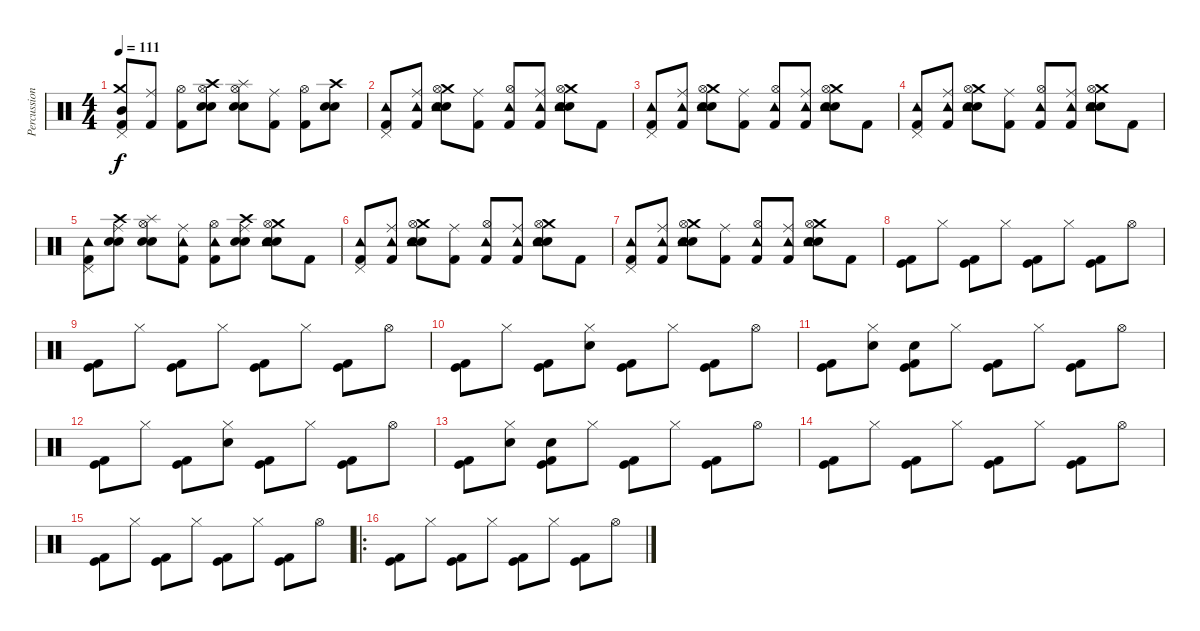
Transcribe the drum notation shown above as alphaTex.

\track ("Percussion" "Percussion") {instrument percussion}
\staff {score}
\articulation defaults
\ts (4 4)
\tempo 111
\clef neutral
\ks c
("Kick (hit) 2" "Mid Tom (hit)" "Crash medium (hit)" "Pedal Hi-Hat (hit)").8{dy f} ("Kick (hit) 2" "Ride (middle)").8 ("Kick (hit) 2" "Hi-Hat (open)").8 ("Snare (hit) 2" "Electric Snare (hit)" "Crash high (hit)" "Hi-Hat (open)").8 ("Snare (hit) 2" "Electric Snare (hit)" "Splash (hit)" "Hi-Hat (open)").8 ("Kick (hit) 2" "Ride (middle)").8 ("Kick (hit) 2" "Hi-Hat (open)").8 ("Snare (hit) 2" "Electric Snare (hit)" "Crash high (hit)").8 |
("Kick (hit) 2" "Pedal Hi-Hat (hit)" "Tambourine (hit)").8 ("Kick (hit) 2" "Ride (middle)" "Tambourine (hit)").8 ("Snare (hit) 2" "Electric Snare (hit)" "Crash medium (hit)" "Hi-Hat (open)" "Tambourine (hit)").8 ("Kick (hit) 2" "Ride (middle)").8 ("Kick (hit) 2" "Hi-Hat (open)" "Tambourine (hit)").8 ("Kick (hit) 2" "Ride (middle)" "Tambourine (hit)").8 ("Snare (hit) 2" "Electric Snare (hit)" "Crash medium (hit)" "Hi-Hat (open)" "Tambourine (hit)").8 "Kick (hit) 2".8 |
("Kick (hit) 2" "Pedal Hi-Hat (hit)" "Tambourine (hit)").8 ("Kick (hit) 2" "Ride (middle)" "Tambourine (hit)").8 ("Snare (hit) 2" "Electric Snare (hit)" "Crash medium (hit)" "Hi-Hat (open)" "Tambourine (hit)").8 ("Kick (hit) 2" "Ride (middle)").8 ("Kick (hit) 2" "Hi-Hat (open)" "Tambourine (hit)").8 ("Kick (hit) 2" "Ride (middle)" "Tambourine (hit)").8 ("Snare (hit) 2" "Electric Snare (hit)" "Crash medium (hit)" "Hi-Hat (open)" "Tambourine (hit)").8 "Kick (hit) 2".8 |
("Kick (hit) 2" "Pedal Hi-Hat (hit)" "Tambourine (hit)").8 ("Kick (hit) 2" "Ride (middle)" "Tambourine (hit)").8 ("Snare (hit) 2" "Electric Snare (hit)" "Crash medium (hit)" "Hi-Hat (open)" "Tambourine (hit)").8 ("Kick (hit) 2" "Ride (middle)").8 ("Kick (hit) 2" "Hi-Hat (open)" "Tambourine (hit)").8 ("Kick (hit) 2" "Ride (middle)" "Tambourine (hit)").8 ("Snare (hit) 2" "Electric Snare (hit)" "Crash medium (hit)" "Hi-Hat (open)" "Tambourine (hit)").8 "Kick (hit) 2".8 |
("Kick (hit) 2" "Pedal Hi-Hat (hit)" "Tambourine (hit)").8 ("Snare (hit) 2" "Electric Snare (hit)" "Crash high (hit)" "Ride (middle)").8 ("Snare (hit) 2" "Electric Snare (hit)" "Splash (hit)" "Hi-Hat (open)").8 ("Kick (hit) 2" "Ride (middle)" "Tambourine (hit)").8 ("Kick (hit) 2" "Hi-Hat (open)" "Tambourine (hit)").8 ("Snare (hit) 2" "Electric Snare (hit)" "Crash high (hit)" "Ride (middle)").8 ("Snare (hit) 2" "Electric Snare (hit)" "Crash medium (hit)" "Hi-Hat (open)" "Tambourine (hit)").8 "Kick (hit) 2".8 |
("Kick (hit) 2" "Pedal Hi-Hat (hit)" "Tambourine (hit)").8 ("Kick (hit) 2" "Ride (middle)" "Tambourine (hit)").8 ("Snare (hit) 2" "Electric Snare (hit)" "Crash medium (hit)" "Hi-Hat (open)" "Tambourine (hit)").8 ("Kick (hit) 2" "Ride (middle)").8 ("Kick (hit) 2" "Hi-Hat (open)" "Tambourine (hit)").8 ("Kick (hit) 2" "Ride (middle)" "Tambourine (hit)").8 ("Snare (hit) 2" "Electric Snare (hit)" "Crash medium (hit)" "Hi-Hat (open)" "Tambourine (hit)").8 "Kick (hit) 2".8 |
("Kick (hit) 2" "Pedal Hi-Hat (hit)" "Tambourine (hit)").8 ("Kick (hit) 2" "Ride (middle)" "Tambourine (hit)").8 ("Snare (hit) 2" "Electric Snare (hit)" "Crash medium (hit)" "Hi-Hat (open)" "Tambourine (hit)").8 ("Kick (hit) 2" "Ride (middle)").8 ("Kick (hit) 2" "Hi-Hat (open)" "Tambourine (hit)").8 ("Kick (hit) 2" "Ride (middle)" "Tambourine (hit)").8 ("Snare (hit) 2" "Electric Snare (hit)" "Crash medium (hit)" "Hi-Hat (open)" "Tambourine (hit)").8 "Kick (hit) 2".8 |
("Kick (hit)" "Kick (hit) 2").8 "Hi-Hat (closed)".8 ("Kick (hit)" "Kick (hit) 2").8 "Hi-Hat (closed)".8 ("Kick (hit)" "Kick (hit) 2").8 "Hi-Hat (closed)".8 ("Kick (hit)" "Kick (hit) 2").8 "Hi-Hat (open)".8 |
("Kick (hit)" "Kick (hit) 2").8 "Hi-Hat (closed)".8 ("Kick (hit)" "Kick (hit) 2").8 "Hi-Hat (closed)".8 ("Kick (hit)" "Kick (hit) 2").8 "Hi-Hat (closed)".8 ("Kick (hit)" "Kick (hit) 2").8 "Hi-Hat (open)".8 |
("Kick (hit)" "Kick (hit) 2").8 "Hi-Hat (closed)".8 ("Kick (hit)" "Kick (hit) 2").8 ("Hi-Hat (closed)" "Snare (hit) 2").8 ("Kick (hit)" "Kick (hit) 2").8 "Hi-Hat (closed)".8 ("Kick (hit)" "Kick (hit) 2").8 "Hi-Hat (open)".8 |
("Kick (hit)" "Kick (hit) 2").8 ("Hi-Hat (closed)" "Snare (hit) 2").8 ("Kick (hit)" "Kick (hit) 2" "Snare (hit) 2").8 "Hi-Hat (closed)".8 ("Kick (hit)" "Kick (hit) 2").8 "Hi-Hat (closed)".8 ("Kick (hit)" "Kick (hit) 2").8 "Hi-Hat (open)".8 |
("Kick (hit)" "Kick (hit) 2").8 "Hi-Hat (closed)".8 ("Kick (hit)" "Kick (hit) 2").8 ("Hi-Hat (closed)" "Snare (hit) 2").8 ("Kick (hit)" "Kick (hit) 2").8 "Hi-Hat (closed)".8 ("Kick (hit)" "Kick (hit) 2").8 "Hi-Hat (open)".8 |
("Kick (hit)" "Kick (hit) 2").8 ("Hi-Hat (closed)" "Snare (hit) 2").8 ("Kick (hit)" "Kick (hit) 2" "Snare (hit) 2").8 "Hi-Hat (closed)".8 ("Kick (hit)" "Kick (hit) 2").8 "Hi-Hat (closed)".8 ("Kick (hit)" "Kick (hit) 2").8 "Hi-Hat (open)".8 |
("Kick (hit)" "Kick (hit) 2").8 "Hi-Hat (closed)".8 ("Kick (hit)" "Kick (hit) 2").8 "Hi-Hat (closed)".8 ("Kick (hit)" "Kick (hit) 2").8 "Hi-Hat (closed)".8 ("Kick (hit)" "Kick (hit) 2").8 "Hi-Hat (open)".8 |
("Kick (hit)" "Kick (hit) 2").8 "Hi-Hat (closed)".8 ("Kick (hit)" "Kick (hit) 2").8 "Hi-Hat (closed)".8 ("Kick (hit)" "Kick (hit) 2").8 "Hi-Hat (closed)".8 ("Kick (hit)" "Kick (hit) 2").8 "Hi-Hat (open)".8 |
\ro
("Kick (hit)" "Kick (hit) 2").8 "Hi-Hat (closed)".8 ("Kick (hit)" "Kick (hit) 2").8 "Hi-Hat (closed)".8 ("Kick (hit)" "Kick (hit) 2").8 "Hi-Hat (closed)".8 ("Kick (hit)" "Kick (hit) 2").8 "Hi-Hat (open)".8
